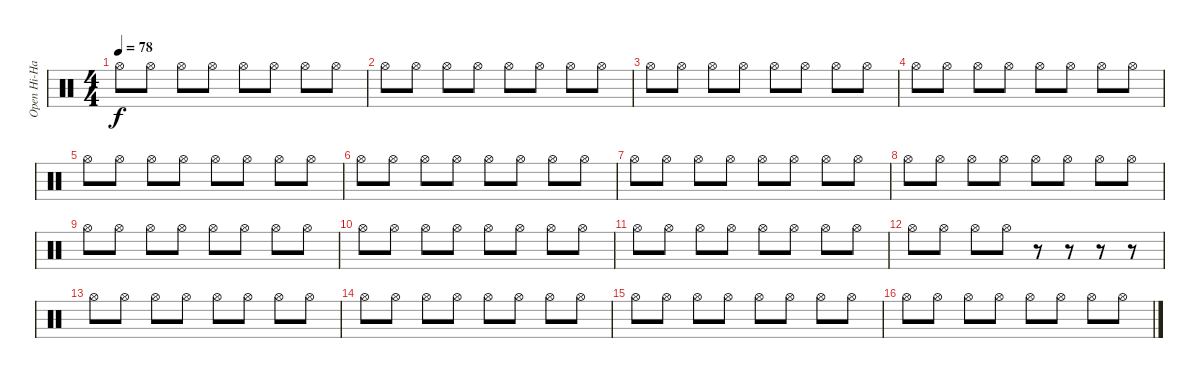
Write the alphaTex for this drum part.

\track ("Open Hi-Hat" "Open Hi-Ha") {instrument percussion}
\staff {score}
\articulation defaults
\ts (4 4)
\tempo 78
\clef neutral
\ks c "Hi-Hat (open)".8{dy f} "Hi-Hat (open)".8 "Hi-Hat (open)".8 "Hi-Hat (open)".8 "Hi-Hat (open)".8 "Hi-Hat (open)".8 "Hi-Hat (open)".8 "Hi-Hat (open)".8
|
"Hi-Hat (open)".8 "Hi-Hat (open)".8 "Hi-Hat (open)".8 "Hi-Hat (open)".8 "Hi-Hat (open)".8 "Hi-Hat (open)".8 "Hi-Hat (open)".8 "Hi-Hat (open)".8 |
"Hi-Hat (open)".8 "Hi-Hat (open)".8 "Hi-Hat (open)".8 "Hi-Hat (open)".8 "Hi-Hat (open)".8 "Hi-Hat (open)".8 "Hi-Hat (open)".8 "Hi-Hat (open)".8 |
"Hi-Hat (open)".8 "Hi-Hat (open)".8 "Hi-Hat (open)".8 "Hi-Hat (open)".8 "Hi-Hat (open)".8 "Hi-Hat (open)".8 "Hi-Hat (open)".8 "Hi-Hat (open)".8 |
"Hi-Hat (open)".8 "Hi-Hat (open)".8 "Hi-Hat (open)".8 "Hi-Hat (open)".8 "Hi-Hat (open)".8 "Hi-Hat (open)".8 "Hi-Hat (open)".8 "Hi-Hat (open)".8 |
"Hi-Hat (open)".8 "Hi-Hat (open)".8 "Hi-Hat (open)".8 "Hi-Hat (open)".8 "Hi-Hat (open)".8 "Hi-Hat (open)".8 "Hi-Hat (open)".8 "Hi-Hat (open)".8 |
"Hi-Hat (open)".8 "Hi-Hat (open)".8 "Hi-Hat (open)".8 "Hi-Hat (open)".8 "Hi-Hat (open)".8 "Hi-Hat (open)".8 "Hi-Hat (open)".8 "Hi-Hat (open)".8 |
"Hi-Hat (open)".8 "Hi-Hat (open)".8 "Hi-Hat (open)".8 "Hi-Hat (open)".8 "Hi-Hat (open)".8 "Hi-Hat (open)".8 "Hi-Hat (open)".8 "Hi-Hat (open)".8 |
"Hi-Hat (open)".8 "Hi-Hat (open)".8 "Hi-Hat (open)".8 "Hi-Hat (open)".8 "Hi-Hat (open)".8 "Hi-Hat (open)".8 "Hi-Hat (open)".8 "Hi-Hat (open)".8 |
"Hi-Hat (open)".8 "Hi-Hat (open)".8 "Hi-Hat (open)".8 "Hi-Hat (open)".8 "Hi-Hat (open)".8 "Hi-Hat (open)".8 "Hi-Hat (open)".8 "Hi-Hat (open)".8 |
"Hi-Hat (open)".8 "Hi-Hat (open)".8 "Hi-Hat (open)".8 "Hi-Hat (open)".8 "Hi-Hat (open)".8 "Hi-Hat (open)".8 "Hi-Hat (open)".8 "Hi-Hat (open)".8 |
"Hi-Hat (open)".8 "Hi-Hat (open)".8 "Hi-Hat (open)".8 "Hi-Hat (open)".8 r.8 r.8 r.8 r.8 |
"Hi-Hat (open)".8 "Hi-Hat (open)".8 "Hi-Hat (open)".8 "Hi-Hat (open)".8 "Hi-Hat (open)".8 "Hi-Hat (open)".8 "Hi-Hat (open)".8 "Hi-Hat (open)".8 |
"Hi-Hat (open)".8 "Hi-Hat (open)".8 "Hi-Hat (open)".8 "Hi-Hat (open)".8 "Hi-Hat (open)".8 "Hi-Hat (open)".8 "Hi-Hat (open)".8 "Hi-Hat (open)".8 |
"Hi-Hat (open)".8 "Hi-Hat (open)".8 "Hi-Hat (open)".8 "Hi-Hat (open)".8 "Hi-Hat (open)".8 "Hi-Hat (open)".8 "Hi-Hat (open)".8 "Hi-Hat (open)".8 |
"Hi-Hat (open)".8 "Hi-Hat (open)".8 "Hi-Hat (open)".8 "Hi-Hat (open)".8 "Hi-Hat (open)".8 "Hi-Hat (open)".8 "Hi-Hat (open)".8 "Hi-Hat (open)".8
